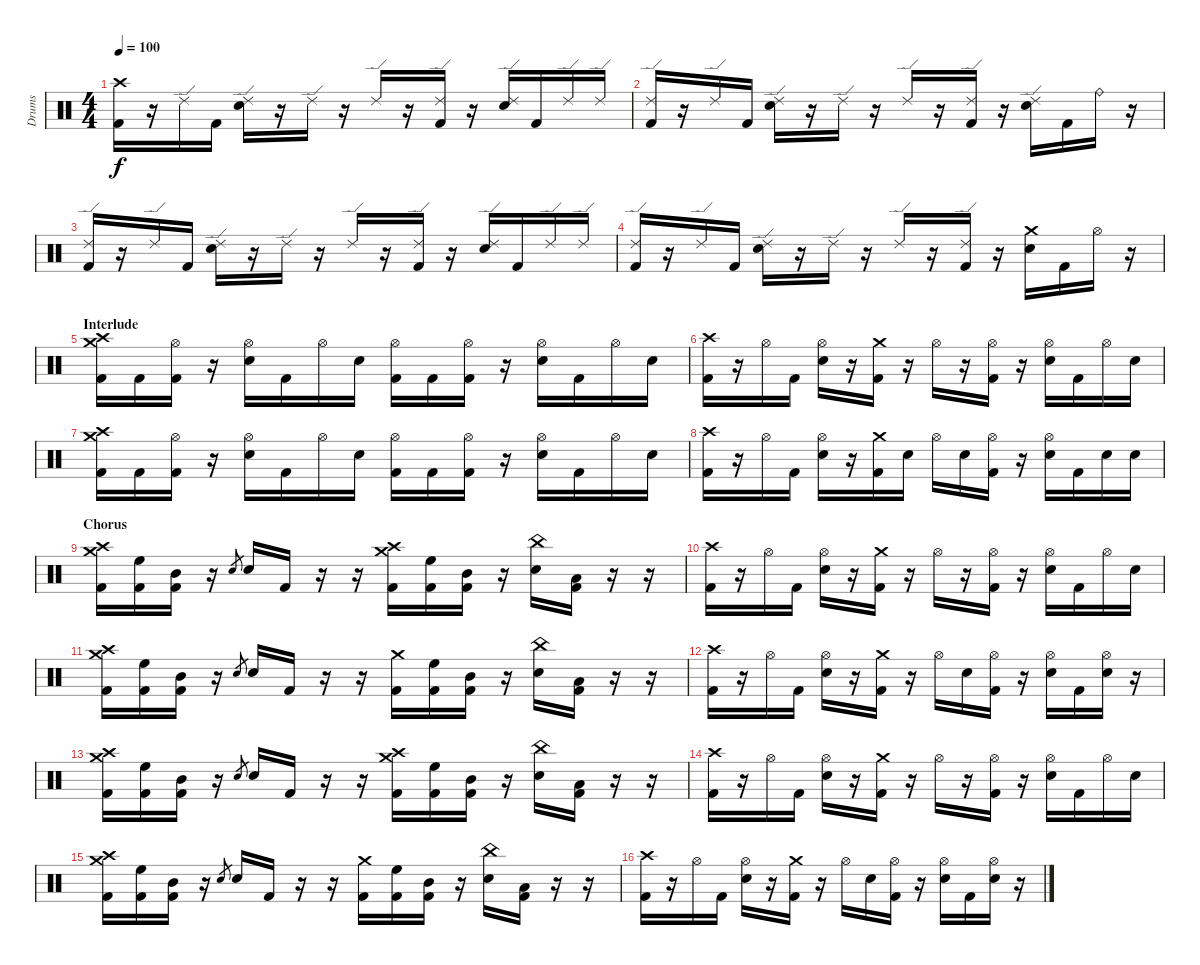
\track ("Drums" "Drums") {instrument percussion}
\staff {score}
\articulation defaults
\ts (4 4)
\tempo 100
\clef neutral
\ks c
("Crash high (hit)" "Kick (hit) 2").16{dy f} r.16 "Ride (edge) 2".16 "Kick (hit) 2".16 ("Ride (edge) 2" "Electric Snare (hit)").16 r.16 "Ride (edge) 2".16 r.16 "Ride (edge) 2".16 r.16 ("Ride (edge) 2" "Kick (hit) 2").16 r.16 ("Ride (edge) 2" "Electric Snare (hit)").16 "Kick (hit) 2".16 "Ride (edge) 2".16 "Ride (edge) 2".16 |
("Ride (edge) 2" "Kick (hit) 2").16 r.16 "Ride (edge) 2".16 "Kick (hit) 2".16 ("Ride (edge) 2" "Electric Snare (hit)").16 r.16 "Ride (edge) 2".16 r.16 "Ride (edge) 2".16 r.16 ("Ride (edge) 2" "Kick (hit) 2").16 r.16 ("Ride (edge) 2" "Electric Snare (hit)").16 "Kick (hit) 2".16 "Ride (bell)".16 r.16 |
("Ride (edge) 2" "Kick (hit) 2").16 r.16 "Ride (edge) 2".16 "Kick (hit) 2".16 ("Ride (edge) 2" "Electric Snare (hit)").16 r.16 "Ride (edge) 2".16 r.16 "Ride (edge) 2".16 r.16 ("Ride (edge) 2" "Kick (hit) 2").16 r.16 ("Ride (edge) 2" "Electric Snare (hit)").16 "Kick (hit) 2".16 "Ride (edge) 2".16 "Ride (edge) 2".16 |
("Ride (edge) 2" "Kick (hit) 2").16 r.16 "Ride (edge) 2".16 "Kick (hit) 2".16 ("Ride (edge) 2" "Electric Snare (hit)").16 r.16 "Ride (edge) 2".16 r.16 "Ride (edge) 2".16 r.16 ("Ride (edge) 2" "Kick (hit) 2").16 r.16 ("Crash medium (hit)" "Electric Snare (hit)").16 "Kick (hit) 2".16 "Hi-Hat (open)".16 r.16 |
\section ("" "Interlude")
("Crash medium (hit)" "Crash high (hit)" "Kick (hit) 2").16 "Kick (hit) 2".16 ("Hi-Hat (open)" "Kick (hit) 2").16 r.16 ("Hi-Hat (open)" "Electric Snare (hit)").16 "Kick (hit) 2".16 "Hi-Hat (open)".16 "Electric Snare (hit)".16 ("Hi-Hat (open)" "Kick (hit) 2").16 "Kick (hit) 2".16 ("Hi-Hat (open)" "Kick (hit) 2").16 r.16 ("Hi-Hat (open)" "Electric Snare (hit)").16 "Kick (hit) 2".16 "Hi-Hat (open)".16 "Electric Snare (hit)".16 |
("Crash high (hit)" "Kick (hit) 2").16 r.16 "Hi-Hat (open)".16 "Kick (hit) 2".16 ("Hi-Hat (open)" "Electric Snare (hit)").16 r.16 ("Crash medium (hit)" "Kick (hit) 2").16 r.16 "Hi-Hat (open)".16 r.16 ("Hi-Hat (open)" "Kick (hit) 2").16 r.16 ("Hi-Hat (open)" "Electric Snare (hit)").16 "Kick (hit) 2".16 "Hi-Hat (open)".16 "Electric Snare (hit)".16 |
("Crash medium (hit)" "Crash high (hit)" "Kick (hit) 2").16 "Kick (hit) 2".16 ("Hi-Hat (open)" "Kick (hit) 2").16 r.16 ("Hi-Hat (open)" "Electric Snare (hit)").16 "Kick (hit) 2".16 "Hi-Hat (open)".16 "Electric Snare (hit)".16 ("Hi-Hat (open)" "Kick (hit) 2").16 "Kick (hit) 2".16 ("Hi-Hat (open)" "Kick (hit) 2").16 r.16 ("Hi-Hat (open)" "Electric Snare (hit)").16 "Kick (hit) 2".16 "Hi-Hat (open)".16 "Electric Snare (hit)".16 |
("Crash high (hit)" "Kick (hit) 2").16 r.16 "Hi-Hat (open)".16 "Kick (hit) 2".16 ("Hi-Hat (open)" "Electric Snare (hit)").16 r.16 ("Crash medium (hit)" "Kick (hit) 2").16 "Electric Snare (hit)".16 "Hi-Hat (open)".16 "Electric Snare (hit)".16 ("Hi-Hat (open)" "Kick (hit) 2").16 r.16 ("Hi-Hat (open)" "Electric Snare (hit)").16 "Kick (hit) 2".16 "Electric Snare (hit)".16 "Electric Snare (hit)".16 |
\section ("" "Chorus")
("Crash medium (hit)" "Crash high (hit)" "Kick (hit) 2").16 ("High Floor Tom (hit)" "Kick (hit) 2").16 ("Mid Tom (hit)" "Kick (hit) 2").16 r.16 "Electric Snare (hit)".8{gr} "Electric Snare (hit)".16 "Kick (hit) 2".16 r.16 r.16 ("Crash medium (hit)" "Crash high (hit)" "Kick (hit) 2").16 ("High Floor Tom (hit)" "Kick (hit) 2").16 ("Mid Tom (hit)" "Kick (hit) 2").16 r.16 ("China (hit)" "Electric Snare (hit)").16 ("Low Tom (hit)" "Kick (hit) 2").16 r.16 r.16 |
("Crash high (hit)" "Kick (hit) 2").16 r.16 "Hi-Hat (open)".16 "Kick (hit) 2".16 ("Hi-Hat (open)" "Electric Snare (hit)").16 r.16 ("Crash medium (hit)" "Kick (hit) 2").16 r.16 "Hi-Hat (open)".16 r.16 ("Hi-Hat (open)" "Kick (hit) 2").16 r.16 ("Hi-Hat (open)" "Electric Snare (hit)").16 "Kick (hit) 2".16 "Hi-Hat (open)".16 "Electric Snare (hit)".16 |
("Crash medium (hit)" "Crash high (hit)" "Kick (hit) 2").16 ("High Floor Tom (hit)" "Kick (hit) 2").16 ("Mid Tom (hit)" "Kick (hit) 2").16 r.16 "Electric Snare (hit)".8{gr} "Electric Snare (hit)".16 "Kick (hit) 2".16 r.16 r.16 ("Crash medium (hit)" "Kick (hit) 2").16 ("High Floor Tom (hit)" "Kick (hit) 2").16 ("Mid Tom (hit)" "Kick (hit) 2").16 r.16 ("China (hit)" "Electric Snare (hit)").16 ("Low Tom (hit)" "Kick (hit) 2").16 r.16 r.16 |
("Crash high (hit)" "Kick (hit) 2").16 r.16 "Hi-Hat (open)".16 "Kick (hit) 2".16 ("Hi-Hat (open)" "Electric Snare (hit)").16 r.16 ("Crash medium (hit)" "Kick (hit) 2").16 r.16 "Hi-Hat (open)".16 "Electric Snare (hit)".16 ("Hi-Hat (open)" "Kick (hit) 2").16 r.16 ("Hi-Hat (open)" "Electric Snare (hit)").16 "Kick (hit) 2".16 ("Hi-Hat (open)" "Electric Snare (hit)").16 r.16 |
("Crash medium (hit)" "Crash high (hit)" "Kick (hit) 2").16 ("High Floor Tom (hit)" "Kick (hit) 2").16 ("Mid Tom (hit)" "Kick (hit) 2").16 r.16 "Electric Snare (hit)".8{gr} "Electric Snare (hit)".16 "Kick (hit) 2".16 r.16 r.16 ("Crash medium (hit)" "Crash high (hit)" "Kick (hit) 2").16 ("High Floor Tom (hit)" "Kick (hit) 2").16 ("Mid Tom (hit)" "Kick (hit) 2").16 r.16 ("China (hit)" "Electric Snare (hit)").16 ("Low Tom (hit)" "Kick (hit) 2").16 r.16 r.16 |
("Crash high (hit)" "Kick (hit) 2").16 r.16 "Hi-Hat (open)".16 "Kick (hit) 2".16 ("Hi-Hat (open)" "Electric Snare (hit)").16 r.16 ("Crash medium (hit)" "Kick (hit) 2").16 r.16 "Hi-Hat (open)".16 r.16 ("Hi-Hat (open)" "Kick (hit) 2").16 r.16 ("Hi-Hat (open)" "Electric Snare (hit)").16 "Kick (hit) 2".16 "Hi-Hat (open)".16 "Electric Snare (hit)".16 |
("Crash medium (hit)" "Crash high (hit)" "Kick (hit) 2").16 ("High Floor Tom (hit)" "Kick (hit) 2").16 ("Mid Tom (hit)" "Kick (hit) 2").16 r.16 "Electric Snare (hit)".8{gr} "Electric Snare (hit)".16 "Kick (hit) 2".16 r.16 r.16 ("Crash medium (hit)" "Kick (hit) 2").16 ("High Floor Tom (hit)" "Kick (hit) 2").16 ("Mid Tom (hit)" "Kick (hit) 2").16 r.16 ("China (hit)" "Electric Snare (hit)").16 ("Low Tom (hit)" "Kick (hit) 2").16 r.16 r.16 |
("Crash high (hit)" "Kick (hit) 2").16 r.16 "Hi-Hat (open)".16 "Kick (hit) 2".16 ("Hi-Hat (open)" "Electric Snare (hit)").16 r.16 ("Crash medium (hit)" "Kick (hit) 2").16 r.16 "Hi-Hat (open)".16 "Electric Snare (hit)".16 ("Hi-Hat (open)" "Kick (hit) 2").16 r.16 ("Hi-Hat (open)" "Electric Snare (hit)").16 "Kick (hit) 2".16 ("Hi-Hat (open)" "Electric Snare (hit)").16 r.16
